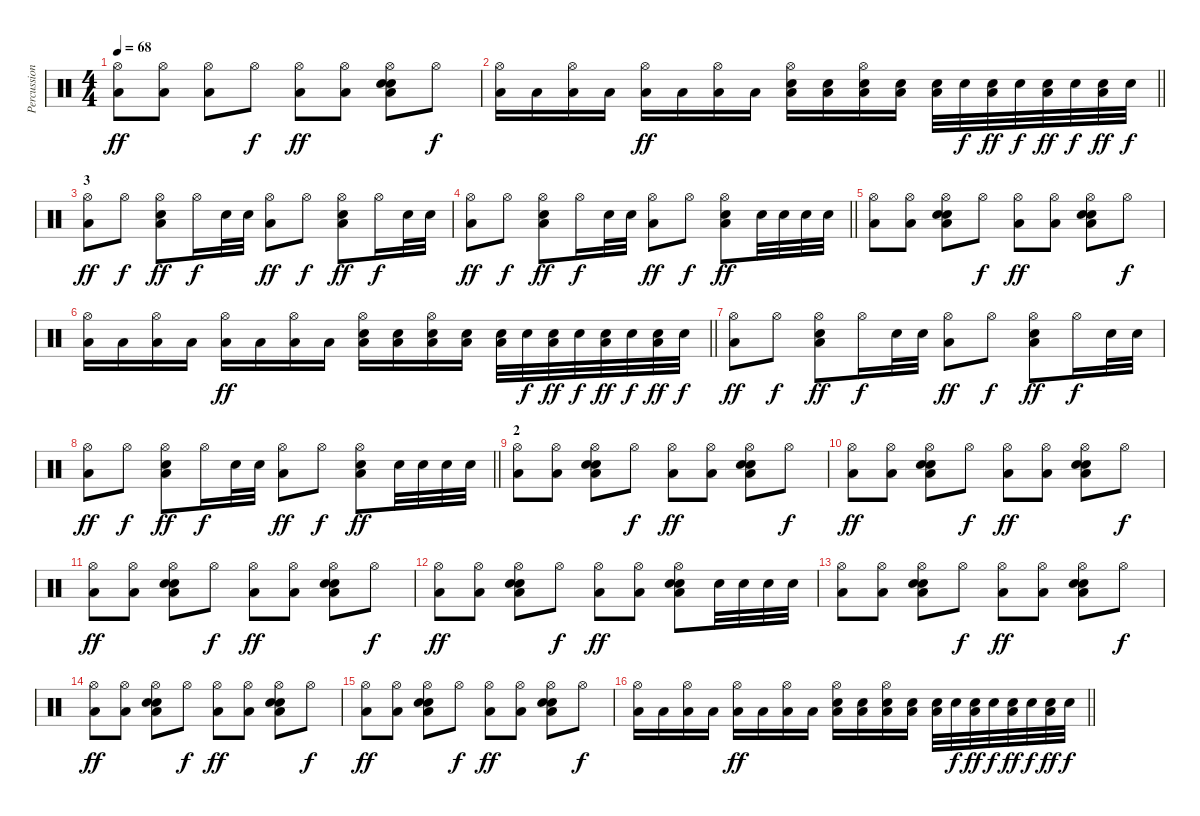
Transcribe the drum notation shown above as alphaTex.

\track ("Percussion" "Percussion") {instrument percussion}
\staff {score}
\articulation defaults
\ts (4 4)
\tempo 68
\clef neutral
\ks c
("Hi-Hat (open)" "Low Floor Tom (hit)").8{dy ff} ("Hi-Hat (open)" "Low Floor Tom (hit)").8 ("Hi-Hat (open)" "Low Floor Tom (hit)").8 "Hi-Hat (open)".8{dy f} ("Hi-Hat (open)" "Low Floor Tom (hit)").8{dy ff} ("Hi-Hat (open)" "Low Floor Tom (hit)").8 ("Hi-Hat (open)" "Electric Snare (hit)" "Snare (hit) 2" "Low Floor Tom (hit)").8 "Hi-Hat (open)".8{dy f} |
\barLineRight lightlight
("Hi-Hat (open)" "Low Floor Tom (hit)").16 "Low Floor Tom (hit)".16 ("Hi-Hat (open)" "Low Floor Tom (hit)").16 "Low Floor Tom (hit)".16 ("Hi-Hat (open)" "Low Floor Tom (hit)").16{dy ff} "Low Floor Tom (hit)".16 ("Hi-Hat (open)" "Low Floor Tom (hit)").16 "Low Floor Tom (hit)".16 ("Hi-Hat (open)" "Snare (hit) 2" "Low Floor Tom (hit)").16 ("Snare (hit) 2" "Low Floor Tom (hit)").16 ("Hi-Hat (open)" "Snare (hit) 2" "Low Floor Tom (hit)").16 ("Snare (hit) 2" "Low Floor Tom (hit)").16 ("Snare (hit) 2" "Low Floor Tom (hit)").32 "Snare (hit) 2".32{dy f} ("Snare (hit) 2" "Low Floor Tom (hit)").32{dy ff} "Snare (hit) 2".32{dy f} ("Snare (hit) 2" "Low Floor Tom (hit)").32{dy ff} "Snare (hit) 2".32{dy f} ("Snare (hit) 2" "Low Floor Tom (hit)").32{dy ff} "Snare (hit) 2".32{dy f} |
\section ("" "3")
("Hi-Hat (open)" "Low Floor Tom (hit)").8{dy ff} "Hi-Hat (open)".8{dy f} ("Hi-Hat (open)" "Snare (hit) 2" "Low Floor Tom (hit)").8{dy ff} "Hi-Hat (open)".16{dy f} "Snare (hit) 2".32 "Snare (hit) 2".32 ("Hi-Hat (open)" "Low Floor Tom (hit)").8{dy ff} "Hi-Hat (open)".8{dy f} ("Hi-Hat (open)" "Snare (hit) 2" "Low Floor Tom (hit)").8{dy ff} "Hi-Hat (open)".16{dy f} "Snare (hit) 2".32 "Snare (hit) 2".32 |
\barLineRight lightlight
("Hi-Hat (open)" "Low Floor Tom (hit)").8{dy ff} "Hi-Hat (open)".8{dy f} ("Hi-Hat (open)" "Snare (hit) 2" "Low Floor Tom (hit)").8{dy ff} "Hi-Hat (open)".16{dy f} "Snare (hit) 2".32 "Snare (hit) 2".32 ("Hi-Hat (open)" "Low Floor Tom (hit)").8{dy ff} "Hi-Hat (open)".8{dy f} ("Hi-Hat (open)" "Snare (hit) 2" "Low Floor Tom (hit)").8{dy ff} "Snare (hit) 2".32 "Snare (hit) 2".32 "Snare (hit) 2".32 "Snare (hit) 2".32 |
("Hi-Hat (open)" "Low Floor Tom (hit)").8 ("Hi-Hat (open)" "Low Floor Tom (hit)").8 ("Hi-Hat (open)" "Electric Snare (hit)" "Snare (hit) 2" "Low Floor Tom (hit)").8 "Hi-Hat (open)".8{dy f} ("Hi-Hat (open)" "Low Floor Tom (hit)").8{dy ff} ("Hi-Hat (open)" "Low Floor Tom (hit)").8 ("Hi-Hat (open)" "Electric Snare (hit)" "Snare (hit) 2" "Low Floor Tom (hit)").8 "Hi-Hat (open)".8{dy f} |
\barLineRight lightlight
("Hi-Hat (open)" "Low Floor Tom (hit)").16 "Low Floor Tom (hit)".16 ("Hi-Hat (open)" "Low Floor Tom (hit)").16 "Low Floor Tom (hit)".16 ("Hi-Hat (open)" "Low Floor Tom (hit)").16{dy ff} "Low Floor Tom (hit)".16 ("Hi-Hat (open)" "Low Floor Tom (hit)").16 "Low Floor Tom (hit)".16 ("Hi-Hat (open)" "Snare (hit) 2" "Low Floor Tom (hit)").16 ("Snare (hit) 2" "Low Floor Tom (hit)").16 ("Hi-Hat (open)" "Snare (hit) 2" "Low Floor Tom (hit)").16 ("Snare (hit) 2" "Low Floor Tom (hit)").16 ("Snare (hit) 2" "Low Floor Tom (hit)").32 "Snare (hit) 2".32{dy f} ("Snare (hit) 2" "Low Floor Tom (hit)").32{dy ff} "Snare (hit) 2".32{dy f} ("Snare (hit) 2" "Low Floor Tom (hit)").32{dy ff} "Snare (hit) 2".32{dy f} ("Snare (hit) 2" "Low Floor Tom (hit)").32{dy ff} "Snare (hit) 2".32{dy f} |
("Hi-Hat (open)" "Low Floor Tom (hit)").8{dy ff} "Hi-Hat (open)".8{dy f} ("Hi-Hat (open)" "Snare (hit) 2" "Low Floor Tom (hit)").8{dy ff} "Hi-Hat (open)".16{dy f} "Snare (hit) 2".32 "Snare (hit) 2".32 ("Hi-Hat (open)" "Low Floor Tom (hit)").8{dy ff} "Hi-Hat (open)".8{dy f} ("Hi-Hat (open)" "Snare (hit) 2" "Low Floor Tom (hit)").8{dy ff} "Hi-Hat (open)".16{dy f} "Snare (hit) 2".32 "Snare (hit) 2".32 |
\barLineRight lightlight
("Hi-Hat (open)" "Low Floor Tom (hit)").8{dy ff} "Hi-Hat (open)".8{dy f} ("Hi-Hat (open)" "Snare (hit) 2" "Low Floor Tom (hit)").8{dy ff} "Hi-Hat (open)".16{dy f} "Snare (hit) 2".32 "Snare (hit) 2".32 ("Hi-Hat (open)" "Low Floor Tom (hit)").8{dy ff} "Hi-Hat (open)".8{dy f} ("Hi-Hat (open)" "Snare (hit) 2" "Low Floor Tom (hit)").8{dy ff} "Snare (hit) 2".32 "Snare (hit) 2".32 "Snare (hit) 2".32 "Snare (hit) 2".32 |
\section ("" "2")
("Hi-Hat (open)" "Low Floor Tom (hit)").8 ("Hi-Hat (open)" "Low Floor Tom (hit)").8 ("Hi-Hat (open)" "Electric Snare (hit)" "Snare (hit) 2" "Low Floor Tom (hit)").8 "Hi-Hat (open)".8{dy f} ("Hi-Hat (open)" "Low Floor Tom (hit)").8{dy ff} ("Hi-Hat (open)" "Low Floor Tom (hit)").8 ("Hi-Hat (open)" "Electric Snare (hit)" "Snare (hit) 2" "Low Floor Tom (hit)").8 "Hi-Hat (open)".8{dy f} |
("Hi-Hat (open)" "Low Floor Tom (hit)").8{dy ff} ("Hi-Hat (open)" "Low Floor Tom (hit)").8 ("Hi-Hat (open)" "Electric Snare (hit)" "Snare (hit) 2" "Low Floor Tom (hit)").8 "Hi-Hat (open)".8{dy f} ("Hi-Hat (open)" "Low Floor Tom (hit)").8{dy ff} ("Hi-Hat (open)" "Low Floor Tom (hit)").8 ("Hi-Hat (open)" "Electric Snare (hit)" "Snare (hit) 2" "Low Floor Tom (hit)").8 "Hi-Hat (open)".8{dy f} |
("Hi-Hat (open)" "Low Floor Tom (hit)").8{dy ff} ("Hi-Hat (open)" "Low Floor Tom (hit)").8 ("Hi-Hat (open)" "Electric Snare (hit)" "Snare (hit) 2" "Low Floor Tom (hit)").8 "Hi-Hat (open)".8{dy f} ("Hi-Hat (open)" "Low Floor Tom (hit)").8{dy ff} ("Hi-Hat (open)" "Low Floor Tom (hit)").8 ("Hi-Hat (open)" "Electric Snare (hit)" "Snare (hit) 2" "Low Floor Tom (hit)").8 "Hi-Hat (open)".8{dy f} |
("Hi-Hat (open)" "Low Floor Tom (hit)").8{dy ff} ("Hi-Hat (open)" "Low Floor Tom (hit)").8 ("Hi-Hat (open)" "Electric Snare (hit)" "Snare (hit) 2" "Low Floor Tom (hit)").8 "Hi-Hat (open)".8{dy f} ("Hi-Hat (open)" "Low Floor Tom (hit)").8{dy ff} ("Hi-Hat (open)" "Low Floor Tom (hit)").8 ("Hi-Hat (open)" "Electric Snare (hit)" "Snare (hit) 2" "Low Floor Tom (hit)").8 "Snare (hit) 2".32 "Snare (hit) 2".32 "Snare (hit) 2".32 "Snare (hit) 2".32 |
("Hi-Hat (open)" "Low Floor Tom (hit)").8 ("Hi-Hat (open)" "Low Floor Tom (hit)").8 ("Hi-Hat (open)" "Electric Snare (hit)" "Snare (hit) 2" "Low Floor Tom (hit)").8 "Hi-Hat (open)".8{dy f} ("Hi-Hat (open)" "Low Floor Tom (hit)").8{dy ff} ("Hi-Hat (open)" "Low Floor Tom (hit)").8 ("Hi-Hat (open)" "Electric Snare (hit)" "Snare (hit) 2" "Low Floor Tom (hit)").8 "Hi-Hat (open)".8{dy f} |
("Hi-Hat (open)" "Low Floor Tom (hit)").8{dy ff} ("Hi-Hat (open)" "Low Floor Tom (hit)").8 ("Hi-Hat (open)" "Electric Snare (hit)" "Snare (hit) 2" "Low Floor Tom (hit)").8 "Hi-Hat (open)".8{dy f} ("Hi-Hat (open)" "Low Floor Tom (hit)").8{dy ff} ("Hi-Hat (open)" "Low Floor Tom (hit)").8 ("Hi-Hat (open)" "Electric Snare (hit)" "Snare (hit) 2" "Low Floor Tom (hit)").8 "Hi-Hat (open)".8{dy f} |
("Hi-Hat (open)" "Low Floor Tom (hit)").8{dy ff} ("Hi-Hat (open)" "Low Floor Tom (hit)").8 ("Hi-Hat (open)" "Electric Snare (hit)" "Snare (hit) 2" "Low Floor Tom (hit)").8 "Hi-Hat (open)".8{dy f} ("Hi-Hat (open)" "Low Floor Tom (hit)").8{dy ff} ("Hi-Hat (open)" "Low Floor Tom (hit)").8 ("Hi-Hat (open)" "Electric Snare (hit)" "Snare (hit) 2" "Low Floor Tom (hit)").8 "Hi-Hat (open)".8{dy f} |
\barLineRight lightlight
("Hi-Hat (open)" "Low Floor Tom (hit)").16 "Low Floor Tom (hit)".16 ("Hi-Hat (open)" "Low Floor Tom (hit)").16 "Low Floor Tom (hit)".16 ("Hi-Hat (open)" "Low Floor Tom (hit)").16{dy ff} "Low Floor Tom (hit)".16 ("Hi-Hat (open)" "Low Floor Tom (hit)").16 "Low Floor Tom (hit)".16 ("Hi-Hat (open)" "Snare (hit) 2" "Low Floor Tom (hit)").16 ("Snare (hit) 2" "Low Floor Tom (hit)").16 ("Hi-Hat (open)" "Snare (hit) 2" "Low Floor Tom (hit)").16 ("Snare (hit) 2" "Low Floor Tom (hit)").16 ("Snare (hit) 2" "Low Floor Tom (hit)").32 "Snare (hit) 2".32{dy f} ("Snare (hit) 2" "Low Floor Tom (hit)").32{dy ff} "Snare (hit) 2".32{dy f} ("Snare (hit) 2" "Low Floor Tom (hit)").32{dy ff} "Snare (hit) 2".32{dy f} ("Snare (hit) 2" "Low Floor Tom (hit)").32{dy ff} "Snare (hit) 2".32{dy f}
